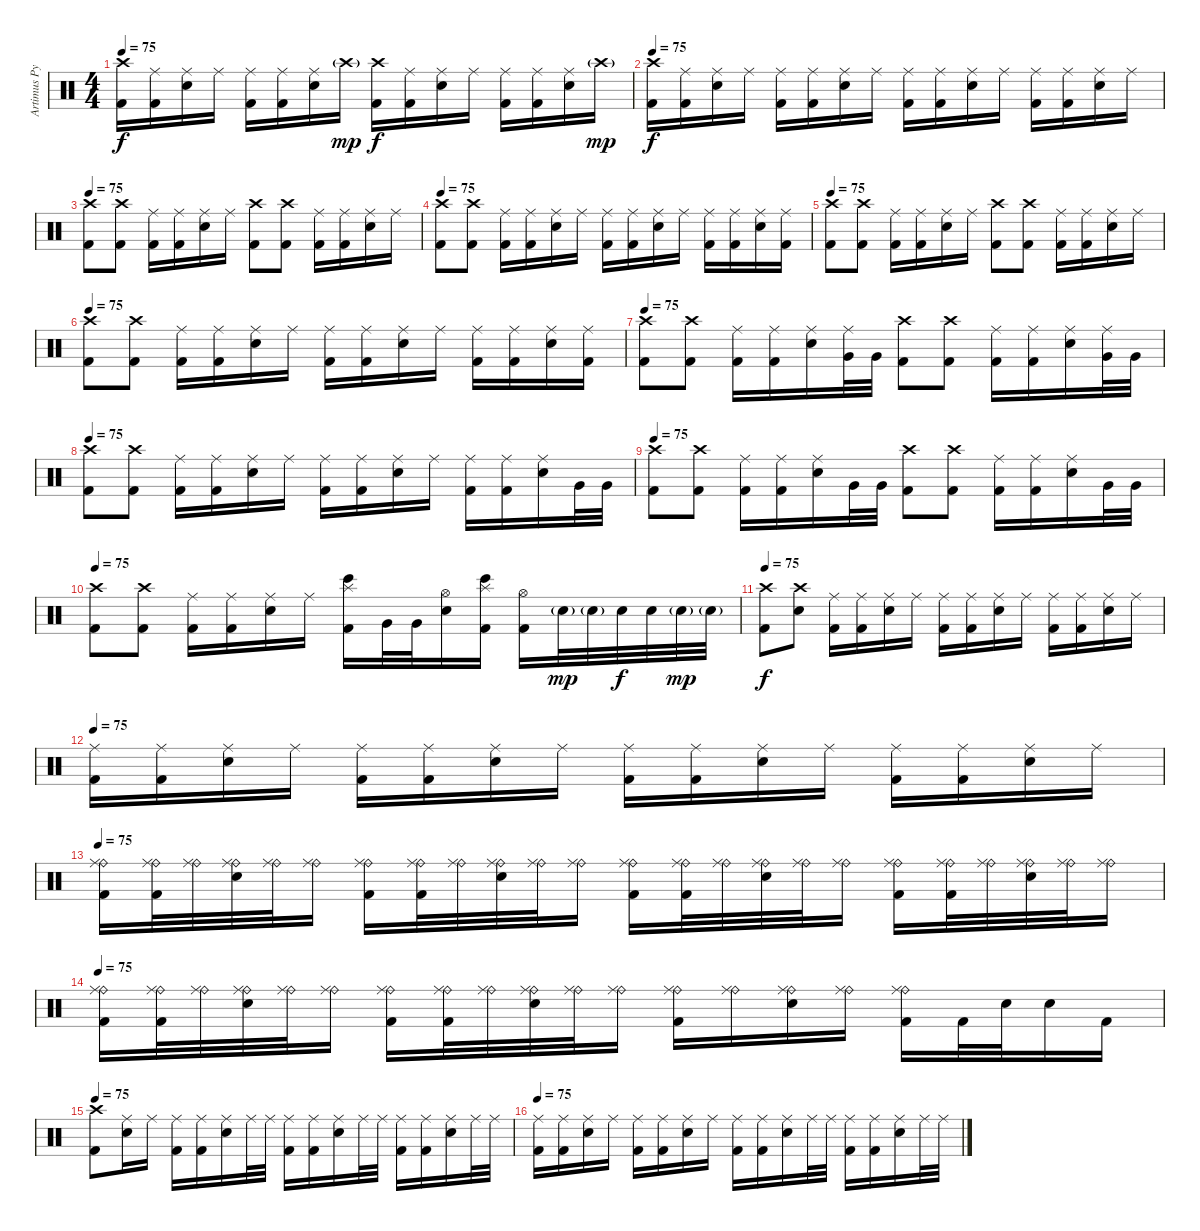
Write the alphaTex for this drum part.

\track ("Artimus Pyle (drums)" "Artimus Py") {instrument percussion}
\staff {score}
\articulation defaults
\ts (4 4)
\tempo 75
\clef neutral
\ks c
("Crash high (hit)" "Kick (hit) 2").16{dy f} ("Ride (middle)" "Kick (hit) 2").16 ("Ride (middle)" "Electric Snare (hit)").16 "Ride (middle)".16 ("Ride (middle)" "Kick (hit) 2").16 ("Ride (middle)" "Kick (hit) 2").16 ("Ride (middle)" "Electric Snare (hit)").16 "Crash high (hit)"{g}.16{dy mp} ("Crash high (hit)" "Kick (hit) 2").16{dy f} ("Ride (middle)" "Kick (hit) 2").16 ("Ride (middle)" "Electric Snare (hit)").16 "Ride (middle)".16 ("Ride (middle)" "Kick (hit) 2").16 ("Ride (middle)" "Kick (hit) 2").16 ("Ride (middle)" "Electric Snare (hit)").16 "Crash high (hit)"{g}.16{dy mp} |
\tempo 75
("Crash high (hit)" "Kick (hit) 2").16{dy f} ("Ride (middle)" "Kick (hit) 2").16 ("Ride (middle)" "Electric Snare (hit)").16 "Ride (middle)".16 ("Ride (middle)" "Kick (hit) 2").16 ("Ride (middle)" "Kick (hit) 2").16 ("Ride (middle)" "Electric Snare (hit)").16 "Ride (middle)".16 ("Ride (middle)" "Kick (hit) 2").16 ("Ride (middle)" "Kick (hit) 2").16 ("Ride (middle)" "Electric Snare (hit)").16 "Ride (middle)".16 ("Ride (middle)" "Kick (hit) 2").16 ("Ride (middle)" "Kick (hit) 2").16 ("Ride (middle)" "Electric Snare (hit)").16 "Ride (middle)".16 |
\tempo 75
("Crash high (hit)" "Kick (hit) 2").8 ("Crash high (hit)" "Kick (hit) 2").8 ("Ride (middle)" "Kick (hit) 2").16 ("Ride (middle)" "Kick (hit) 2").16 ("Ride (middle)" "Electric Snare (hit)").16 "Ride (middle)".16 ("Crash high (hit)" "Kick (hit) 2").8 ("Crash high (hit)" "Kick (hit) 2").8 ("Ride (middle)" "Kick (hit) 2").16 ("Ride (middle)" "Kick (hit) 2").16 ("Ride (middle)" "Electric Snare (hit)").16 "Ride (middle)".16 |
\tempo 75
("Crash high (hit)" "Kick (hit) 2").8 ("Crash high (hit)" "Kick (hit) 2").8 ("Ride (middle)" "Kick (hit) 2").16 ("Ride (middle)" "Kick (hit) 2").16 ("Ride (middle)" "Electric Snare (hit)").16 "Ride (middle)".16 ("Ride (middle)" "Kick (hit) 2").16 ("Ride (middle)" "Kick (hit) 2").16 ("Ride (middle)" "Electric Snare (hit)").16 "Ride (middle)".16 ("Ride (middle)" "Kick (hit) 2").16 ("Ride (middle)" "Kick (hit) 2").16 ("Ride (middle)" "Electric Snare (hit)").16 ("Ride (middle)" "Kick (hit) 2").16 |
\tempo 75
("Crash high (hit)" "Kick (hit) 2").8 ("Crash high (hit)" "Kick (hit) 2").8 ("Ride (middle)" "Kick (hit) 2").16 ("Ride (middle)" "Kick (hit) 2").16 ("Ride (middle)" "Electric Snare (hit)").16 "Ride (middle)".16 ("Crash high (hit)" "Kick (hit) 2").8 ("Crash high (hit)" "Kick (hit) 2").8 ("Ride (middle)" "Kick (hit) 2").16 ("Ride (middle)" "Kick (hit) 2").16 ("Ride (middle)" "Electric Snare (hit)").16 "Ride (middle)".16 |
\tempo 75
("Crash high (hit)" "Kick (hit) 2").8 ("Crash high (hit)" "Kick (hit) 2").8 ("Ride (middle)" "Kick (hit) 2").16 ("Ride (middle)" "Kick (hit) 2").16 ("Ride (middle)" "Electric Snare (hit)").16 "Ride (middle)".16 ("Ride (middle)" "Kick (hit) 2").16 ("Ride (middle)" "Kick (hit) 2").16 ("Ride (middle)" "Electric Snare (hit)").16 "Ride (middle)".16 ("Ride (middle)" "Kick (hit) 2").16 ("Ride (middle)" "Kick (hit) 2").16 ("Ride (middle)" "Electric Snare (hit)").16 ("Ride (middle)" "Kick (hit) 2").16 |
\tempo 75
("Crash high (hit)" "Kick (hit) 2").8 ("Crash high (hit)" "Kick (hit) 2").8 ("Ride (middle)" "Kick (hit) 2").16 ("Ride (middle)" "Kick (hit) 2").16 ("Ride (middle)" "Electric Snare (hit)").16 ("Ride (middle)" "Very Low Tom (hit)").32 "Very Low Tom (hit)".32 ("Crash high (hit)" "Kick (hit) 2").8 ("Crash high (hit)" "Kick (hit) 2").8 ("Ride (middle)" "Kick (hit) 2").16 ("Ride (middle)" "Kick (hit) 2").16 ("Ride (middle)" "Electric Snare (hit)").16 ("Ride (middle)" "Very Low Tom (hit)").32 "Very Low Tom (hit)".32 |
\tempo 75
("Crash high (hit)" "Kick (hit) 2").8 ("Crash high (hit)" "Kick (hit) 2").8 ("Ride (middle)" "Kick (hit) 2").16 ("Ride (middle)" "Kick (hit) 2").16 ("Ride (middle)" "Electric Snare (hit)").16 "Ride (middle)".16 ("Ride (middle)" "Kick (hit) 2").16 ("Ride (middle)" "Kick (hit) 2").16 ("Ride (middle)" "Electric Snare (hit)").16 "Ride (middle)".16 ("Ride (middle)" "Kick (hit) 2").16 ("Ride (middle)" "Kick (hit) 2").16 ("Ride (middle)" "Electric Snare (hit)").16 "Very Low Tom (hit)".32 "Very Low Tom (hit)".32 |
\tempo 75
("Crash high (hit)" "Kick (hit) 2").8 ("Crash high (hit)" "Kick (hit) 2").8 ("Ride (middle)" "Kick (hit) 2").16 ("Ride (middle)" "Kick (hit) 2").16 ("Ride (middle)" "Electric Snare (hit)").16 "Very Low Tom (hit)".32 "Very Low Tom (hit)".32 ("Crash high (hit)" "Kick (hit) 2").8 ("Crash high (hit)" "Kick (hit) 2").8 ("Ride (middle)" "Kick (hit) 2").16 ("Ride (middle)" "Kick (hit) 2").16 ("Ride (middle)" "Electric Snare (hit)").16 "Very Low Tom (hit)".32 "Very Low Tom (hit)".32 |
\tempo 75
("Crash high (hit)" "Kick (hit) 2").8 ("Crash high (hit)" "Kick (hit) 2").8 ("Ride (middle)" "Kick (hit) 2").16 ("Ride (middle)" "Kick (hit) 2").16 ("Ride (middle)" "Electric Snare (hit)").16 "Ride (middle)".16 ("Bongo High (hit)" "Splash (hit)" "Kick (hit) 2").16 "Very Low Tom (hit)".32 "Very Low Tom (hit)".32 ("Hi-Hat (open)" "Electric Snare (hit)").16 ("Bongo High (hit)" "Splash (hit)" "Kick (hit) 2").16 ("Hi-Hat (open)" "Kick (hit) 2").16 "Electric Snare (hit)"{g}.32{dy mp} "Electric Snare (hit)"{g}.32 "Electric Snare (hit)".32{dy f} "Electric Snare (hit)".32 "Electric Snare (hit)"{g}.32{dy mp} "Electric Snare (hit)"{g}.32 |
\tempo 75
("Crash high (hit)" "Kick (hit) 2").8{dy f} ("Crash high (hit)" "Electric Snare (hit)").8 ("Ride (middle)" "Kick (hit) 2").16 ("Ride (middle)" "Kick (hit) 2").16 ("Ride (middle)" "Electric Snare (hit)").16 "Ride (middle)".16 ("Ride (middle)" "Kick (hit) 2").16 ("Ride (middle)" "Kick (hit) 2").16 ("Ride (middle)" "Electric Snare (hit)").16 "Ride (middle)".16 ("Ride (middle)" "Kick (hit) 2").16 ("Ride (middle)" "Kick (hit) 2").16 ("Ride (middle)" "Electric Snare (hit)").16 "Ride (middle)".16 |
\tempo 75
("Ride (middle)" "Kick (hit) 2").16 ("Ride (middle)" "Kick (hit) 2").16 ("Ride (middle)" "Electric Snare (hit)").16 "Ride (middle)".16 ("Ride (middle)" "Kick (hit) 2").16 ("Ride (middle)" "Kick (hit) 2").16 ("Ride (middle)" "Electric Snare (hit)").16 "Ride (middle)".16 ("Ride (middle)" "Kick (hit) 2").16 ("Ride (middle)" "Kick (hit) 2").16 ("Ride (middle)" "Electric Snare (hit)").16 "Ride (middle)".16 ("Ride (middle)" "Kick (hit) 2").16 ("Ride (middle)" "Kick (hit) 2").16 ("Ride (middle)" "Electric Snare (hit)").16 "Ride (middle)".16 |
\tempo 75
("Ride (bell)" "Ride (middle)" "Kick (hit) 2").16 ("Ride (bell)" "Ride (middle)" "Kick (hit) 2").32 ("Ride (bell)" "Ride (middle)").32 ("Ride (bell)" "Ride (middle)" "Electric Snare (hit)").32 ("Ride (bell)" "Ride (middle)").32 ("Ride (bell)" "Ride (middle)").16 ("Ride (bell)" "Ride (middle)" "Kick (hit) 2").16 ("Ride (bell)" "Ride (middle)" "Kick (hit) 2").32 ("Ride (bell)" "Ride (middle)").32 ("Ride (bell)" "Ride (middle)" "Electric Snare (hit)").32 ("Ride (bell)" "Ride (middle)").32 ("Ride (bell)" "Ride (middle)").16 ("Ride (bell)" "Ride (middle)" "Kick (hit) 2").16 ("Ride (bell)" "Ride (middle)" "Kick (hit) 2").32 ("Ride (bell)" "Ride (middle)").32 ("Ride (bell)" "Ride (middle)" "Electric Snare (hit)").32 ("Ride (bell)" "Ride (middle)").32 ("Ride (bell)" "Ride (middle)").16 ("Ride (bell)" "Ride (middle)" "Kick (hit) 2").16 ("Ride (bell)" "Ride (middle)" "Kick (hit) 2").32 ("Ride (bell)" "Ride (middle)").32 ("Ride (bell)" "Ride (middle)" "Electric Snare (hit)").32 ("Ride (bell)" "Ride (middle)").32 ("Ride (bell)" "Ride (middle)").16 |
\tempo 75
("Ride (bell)" "Ride (middle)" "Kick (hit) 2").16 ("Ride (bell)" "Ride (middle)" "Kick (hit) 2").32 ("Ride (bell)" "Ride (middle)").32 ("Ride (bell)" "Ride (middle)" "Electric Snare (hit)").32 ("Ride (bell)" "Ride (middle)").32 ("Ride (bell)" "Ride (middle)").16 ("Ride (bell)" "Ride (middle)" "Kick (hit) 2").16 ("Ride (bell)" "Ride (middle)" "Kick (hit) 2").32 ("Ride (bell)" "Ride (middle)").32 ("Ride (bell)" "Ride (middle)" "Electric Snare (hit)").32 ("Ride (bell)" "Ride (middle)").32 ("Ride (bell)" "Ride (middle)").16 ("Ride (bell)" "Ride (middle)" "Kick (hit) 2").16 ("Ride (bell)" "Ride (middle)").16 ("Ride (bell)" "Ride (middle)" "Electric Snare (hit)").16 ("Ride (bell)" "Ride (middle)").16 ("Ride (bell)" "Ride (middle)" "Kick (hit) 2").16 "Kick (hit) 2".32 "Electric Snare (hit)".32 "Electric Snare (hit)".16 "Kick (hit) 2".16 |
\tempo 75
("Crash high (hit)" "Kick (hit) 2").8 ("Ride (middle)" "Electric Snare (hit)").16 "Ride (middle)".16 ("Ride (middle)" "Kick (hit) 2").16 ("Ride (middle)" "Kick (hit) 2").16 ("Ride (middle)" "Electric Snare (hit)").16 "Ride (middle)".32 "Ride (middle)".32 ("Ride (middle)" "Kick (hit) 2").16 ("Ride (middle)" "Kick (hit) 2").16 ("Ride (middle)" "Electric Snare (hit)").16 "Ride (middle)".32 "Ride (middle)".32 ("Ride (middle)" "Kick (hit) 2").16 ("Ride (middle)" "Kick (hit) 2").16 ("Ride (middle)" "Electric Snare (hit)").16 "Ride (middle)".32 "Ride (middle)".32 |
\tempo 75
("Ride (middle)" "Kick (hit) 2").16 ("Ride (middle)" "Kick (hit) 2").16 ("Ride (middle)" "Electric Snare (hit)").16 "Ride (middle)".16 ("Ride (middle)" "Kick (hit) 2").16 ("Ride (middle)" "Kick (hit) 2").16 ("Ride (middle)" "Electric Snare (hit)").16 "Ride (middle)".16 ("Ride (middle)" "Kick (hit) 2").16 ("Ride (middle)" "Kick (hit) 2").16 ("Ride (middle)" "Electric Snare (hit)").16 "Ride (middle)".32 "Ride (middle)".32 ("Ride (middle)" "Kick (hit) 2").16 ("Ride (middle)" "Kick (hit) 2").16 ("Ride (middle)" "Electric Snare (hit)").16 "Ride (middle)".32 "Ride (middle)".32
